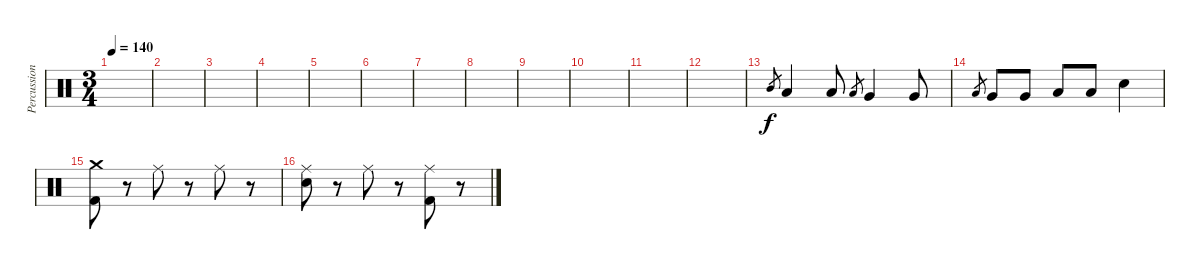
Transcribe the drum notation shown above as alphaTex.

\track ("Percussion" "Percussion") {instrument percussion}
\staff {score}
\articulation defaults
\ts (3 4)
\tempo 140
\clef neutral
\ks c
|
|
|
|
|
|
|
|
|
|
|
|
"Mid Tom (hit)".8{gr} "Low Tom (hit)".4 "Low Tom (hit)".8 "Low Tom (hit)".8{gr} "Very Low Tom (hit)".4 "Very Low Tom (hit)".8 |
"Low Tom (hit)".8{gr} "Very Low Tom (hit)".8 "Very Low Tom (hit)".8 "Low Floor Tom (hit)".8 "Low Floor Tom (hit)".8 "Electric Snare (hit)".4 |
("Crash medium (hit)" "Kick (hit) 2").8 r.8 "Ride (middle)".8 r.8 "Ride (middle)".8 r.8 |
("Ride (middle)" "Electric Snare (hit)").8 r.8 "Ride (middle)".8 r.8 ("Ride (middle)" "Kick (hit) 2").8 r.8
